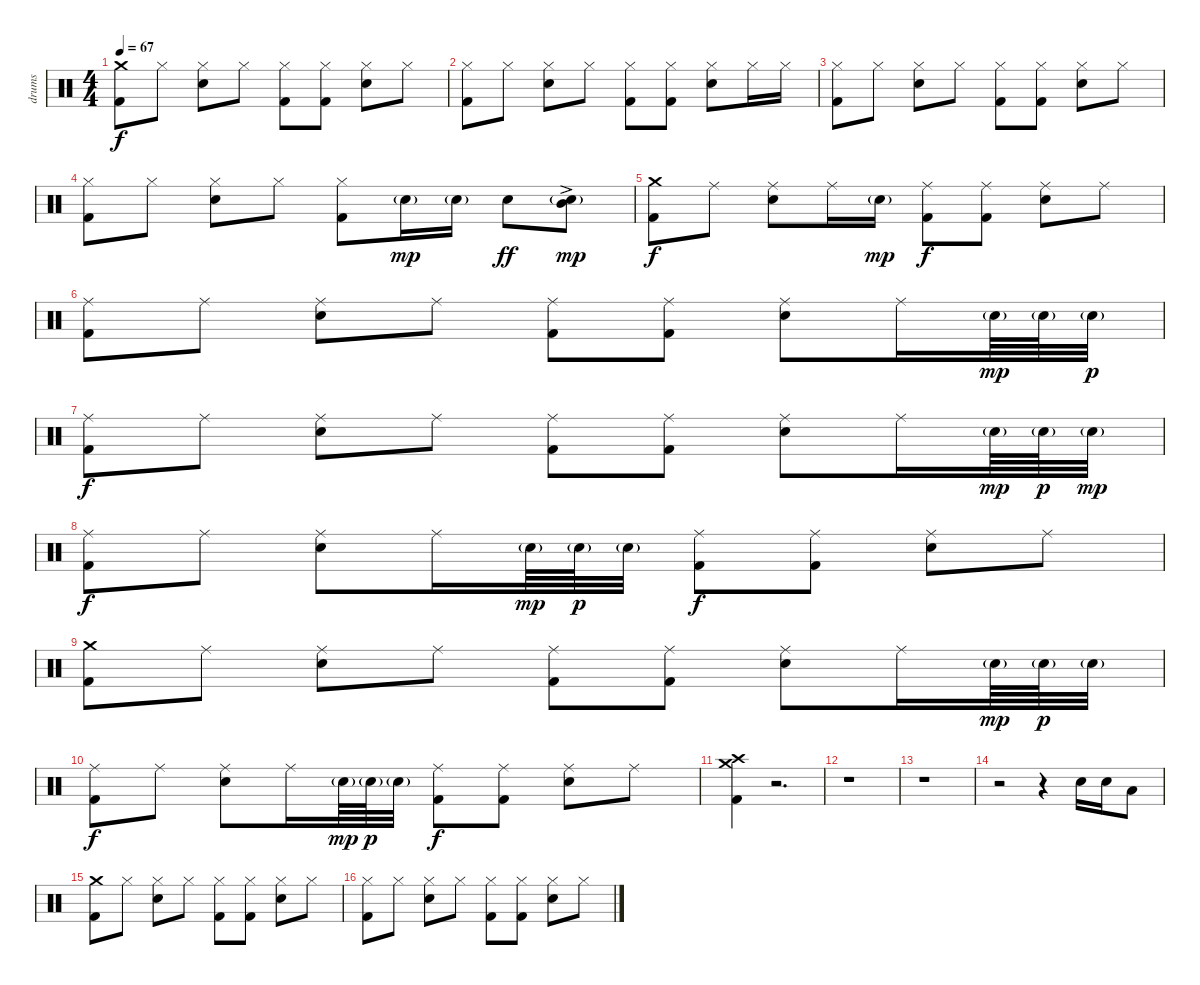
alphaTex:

\track ("drums" "drums") {instrument percussion}
\staff {score}
\articulation defaults
\ts (4 4)
\tempo 67
\clef neutral
\ks c
("Crash medium (hit)" "Kick (hit) 2").8{dy f} "Hi-Hat (closed)".8 ("Hi-Hat (closed)" "Snare (hit) 2").8 "Hi-Hat (closed)".8 ("Hi-Hat (closed)" "Kick (hit) 2").8 ("Hi-Hat (closed)" "Kick (hit) 2").8 ("Hi-Hat (closed)" "Snare (hit) 2").8 "Hi-Hat (closed)".8 |
("Hi-Hat (closed)" "Kick (hit) 2").8 "Hi-Hat (closed)".8 ("Hi-Hat (closed)" "Snare (hit) 2").8 "Hi-Hat (closed)".8 ("Hi-Hat (closed)" "Kick (hit) 2").8 ("Hi-Hat (closed)" "Kick (hit) 2").8 ("Hi-Hat (closed)" "Snare (hit) 2").8 "Hi-Hat (closed)".16 "Hi-Hat (closed)".16 |
("Hi-Hat (closed)" "Kick (hit) 2").8 "Hi-Hat (closed)".8 ("Hi-Hat (closed)" "Snare (hit) 2").8 "Hi-Hat (closed)".8 ("Hi-Hat (closed)" "Kick (hit) 2").8 ("Hi-Hat (closed)" "Kick (hit) 2").8 ("Hi-Hat (closed)" "Snare (hit) 2").8 "Hi-Hat (closed)".8 |
("Hi-Hat (closed)" "Kick (hit) 2").8 "Hi-Hat (closed)".8 ("Hi-Hat (closed)" "Snare (hit) 2").8 "Hi-Hat (closed)".8 ("Hi-Hat (closed)" "Kick (hit) 2").8 "Snare (hit) 2"{g}.16{dy mp} "Snare (hit) 2"{g}.16 "Snare (hit) 2".8{dy ff} ("Mid Tom (hit)"{ac} "Snare (hit) 2"{g}).8{dy mp} |
("Crash medium (hit)" "Kick (hit) 2").8{dy f} "Ride (middle)".8 ("Ride (middle)" "Snare (hit) 2").8 "Ride (middle)".16 "Snare (hit) 2"{g}.16{dy mp} ("Ride (middle)" "Kick (hit) 2").8{dy f} ("Ride (middle)" "Kick (hit) 2").8 ("Ride (middle)" "Snare (hit) 2").8 "Ride (middle)".8 |
("Ride (middle)" "Kick (hit) 2").8 "Ride (middle)".8 ("Ride (middle)" "Snare (hit) 2").8 "Ride (middle)".8 ("Ride (middle)" "Kick (hit) 2").8 ("Ride (middle)" "Kick (hit) 2").8 ("Ride (middle)" "Snare (hit) 2").8 "Ride (middle)".16 "Snare (hit) 2"{g}.64{dy mp} "Snare (hit) 2"{g}.64 "Snare (hit) 2"{g}.32{dy p} |
("Ride (middle)" "Kick (hit) 2").8{dy f} "Ride (middle)".8 ("Ride (middle)" "Snare (hit) 2").8 "Ride (middle)".8 ("Ride (middle)" "Kick (hit) 2").8 ("Ride (middle)" "Kick (hit) 2").8 ("Ride (middle)" "Snare (hit) 2").8 "Ride (middle)".16 "Snare (hit) 2"{g}.64{dy mp} "Snare (hit) 2"{g}.64{dy p} "Snare (hit) 2"{g}.32{dy mp} |
("Ride (middle)" "Kick (hit) 2").8{dy f} "Ride (middle)".8 ("Ride (middle)" "Snare (hit) 2").8 "Ride (middle)".16 "Snare (hit) 2"{g}.64{dy mp} "Snare (hit) 2"{g}.64{dy p} "Snare (hit) 2"{g}.32 ("Ride (middle)" "Kick (hit) 2").8{dy f} ("Ride (middle)" "Kick (hit) 2").8 ("Ride (middle)" "Snare (hit) 2").8 "Ride (middle)".8 |
("Crash medium (hit)" "Kick (hit) 2").8 "Ride (middle)".8 ("Ride (middle)" "Snare (hit) 2").8 "Ride (middle)".8 ("Ride (middle)" "Kick (hit) 2").8 ("Ride (middle)" "Kick (hit) 2").8 ("Ride (middle)" "Snare (hit) 2").8 "Ride (middle)".16 "Snare (hit) 2"{g}.64{dy mp} "Snare (hit) 2"{g}.64{dy p} "Snare (hit) 2"{g}.32 |
("Ride (middle)" "Kick (hit) 2").8{dy f} "Ride (middle)".8 ("Ride (middle)" "Snare (hit) 2").8 "Ride (middle)".16 "Snare (hit) 2"{g}.64{dy mp} "Snare (hit) 2"{g}.64{dy p} "Snare (hit) 2"{g}.32 ("Ride (middle)" "Kick (hit) 2").8{dy f} ("Ride (middle)" "Kick (hit) 2").8 ("Ride (middle)" "Snare (hit) 2").8 "Ride (middle)".8 |
("Crash medium (hit)" "Crash high (hit)" "Kick (hit) 2").4 r.2{d} |
r.1 |
r.1 |
r.2 r.4 "Snare (hit) 2".16 "Snare (hit) 2".16 "Low Tom (hit)".8 |
("Crash medium (hit)" "Kick (hit) 2").8 "Hi-Hat (closed)".8 ("Hi-Hat (closed)" "Snare (hit) 2").8 "Hi-Hat (closed)".8 ("Hi-Hat (closed)" "Kick (hit) 2").8 ("Hi-Hat (closed)" "Kick (hit) 2").8 ("Hi-Hat (closed)" "Snare (hit) 2").8 "Hi-Hat (closed)".8 |
("Hi-Hat (closed)" "Kick (hit) 2").8 "Hi-Hat (closed)".8 ("Hi-Hat (closed)" "Snare (hit) 2").8 "Hi-Hat (closed)".8 ("Hi-Hat (closed)" "Kick (hit) 2").8 ("Hi-Hat (closed)" "Kick (hit) 2").8 ("Hi-Hat (closed)" "Snare (hit) 2").8 "Hi-Hat (closed)".8
